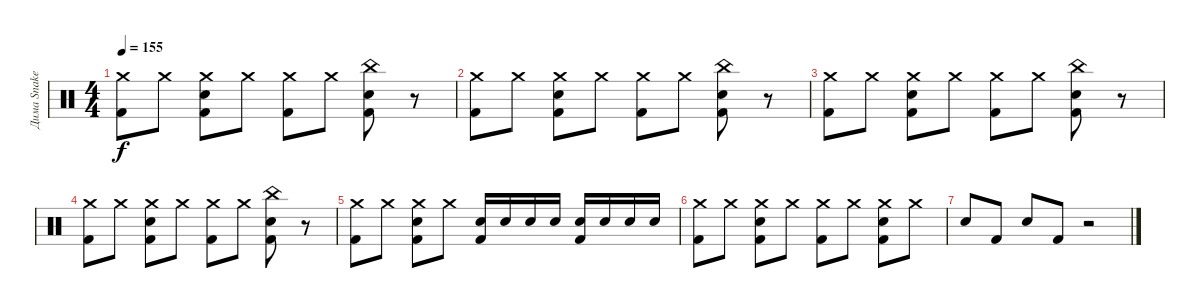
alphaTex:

\track ("Дима Snake Хакимов" "Дима Snake") {instrument percussion}
\staff {score}
\articulation defaults
\ts (4 4)
\tempo 155
\clef neutral
\ks c
("Crash medium (hit)" "Kick (hit) 2").8{dy f} "Crash medium (hit)".8 ("Crash medium (hit)" "Snare (hit) 2" "Kick (hit) 2").8 "Crash medium (hit)".8 ("Crash medium (hit)" "Kick (hit) 2").8 "Crash medium (hit)".8 ("China (hit)" "Snare (hit) 2" "Kick (hit) 2").8 r.8 |
("Crash medium (hit)" "Kick (hit) 2").8 "Crash medium (hit)".8 ("Crash medium (hit)" "Snare (hit) 2" "Kick (hit) 2").8 "Crash medium (hit)".8 ("Crash medium (hit)" "Kick (hit) 2").8 "Crash medium (hit)".8 ("China (hit)" "Snare (hit) 2" "Kick (hit) 2").8 r.8 |
("Crash medium (hit)" "Kick (hit) 2").8 "Crash medium (hit)".8 ("Crash medium (hit)" "Snare (hit) 2" "Kick (hit) 2").8 "Crash medium (hit)".8 ("Crash medium (hit)" "Kick (hit) 2").8 "Crash medium (hit)".8 ("China (hit)" "Snare (hit) 2" "Kick (hit) 2").8 r.8 |
("Crash medium (hit)" "Kick (hit) 2").8 "Crash medium (hit)".8 ("Crash medium (hit)" "Snare (hit) 2" "Kick (hit) 2").8 "Crash medium (hit)".8 ("Crash medium (hit)" "Kick (hit) 2").8 "Crash medium (hit)".8 ("China (hit)" "Snare (hit) 2" "Kick (hit) 2").8 r.8 |
("Crash medium (hit)" "Kick (hit) 2").8 "Crash medium (hit)".8 ("Crash medium (hit)" "Snare (hit) 2" "Kick (hit) 2").8 "Crash medium (hit)".8 ("Snare (hit) 2" "Kick (hit) 2").16 "Snare (hit) 2".16 "Snare (hit) 2".16 "Snare (hit) 2".16 ("Snare (hit) 2" "Kick (hit) 2").16 "Snare (hit) 2".16 "Snare (hit) 2".16 "Snare (hit) 2".16 |
("Crash medium (hit)" "Kick (hit) 2").8 "Crash medium (hit)".8 ("Crash medium (hit)" "Snare (hit) 2" "Kick (hit) 2").8 "Crash medium (hit)".8 ("Crash medium (hit)" "Kick (hit) 2").8 "Crash medium (hit)".8 ("Crash medium (hit)" "Snare (hit) 2" "Kick (hit) 2").8 "Crash medium (hit)".8 |
"Snare (hit) 2".8 "Kick (hit) 2".8 "Snare (hit) 2".8 "Kick (hit) 2".8 r.2
